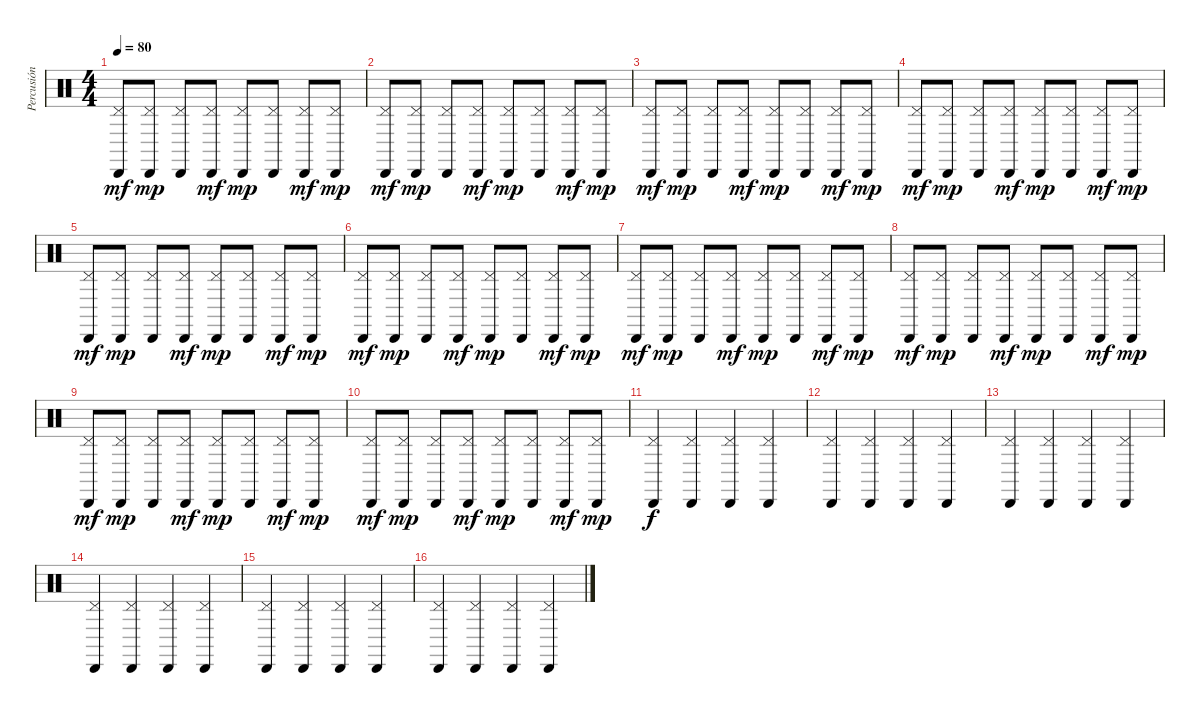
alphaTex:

\track ("Percusión" "Percusión") {instrument percussion}
\staff {score}
\articulation defaults
\ts (4 4)
\tempo 80
\clef neutral
\ks c
("Cabasa (hit)" "Pedal Hi-Hat (hit)").8{dy mf} ("Cabasa (hit)" "Pedal Hi-Hat (hit)").8{dy mp} ("Cabasa (hit)" "Pedal Hi-Hat (hit)").8 ("Cabasa (hit)" "Pedal Hi-Hat (hit)").8{dy mf} ("Cabasa (hit)" "Pedal Hi-Hat (hit)").8{dy mp} ("Cabasa (hit)" "Pedal Hi-Hat (hit)").8 ("Cabasa (hit)" "Pedal Hi-Hat (hit)").8{dy mf} ("Cabasa (hit)" "Pedal Hi-Hat (hit)").8{dy mp} |
("Cabasa (hit)" "Pedal Hi-Hat (hit)").8{dy mf} ("Cabasa (hit)" "Pedal Hi-Hat (hit)").8{dy mp} ("Cabasa (hit)" "Pedal Hi-Hat (hit)").8 ("Cabasa (hit)" "Pedal Hi-Hat (hit)").8{dy mf} ("Cabasa (hit)" "Pedal Hi-Hat (hit)").8{dy mp} ("Cabasa (hit)" "Pedal Hi-Hat (hit)").8 ("Cabasa (hit)" "Pedal Hi-Hat (hit)").8{dy mf} ("Cabasa (hit)" "Pedal Hi-Hat (hit)").8{dy mp} |
("Cabasa (hit)" "Pedal Hi-Hat (hit)").8{dy mf} ("Cabasa (hit)" "Pedal Hi-Hat (hit)").8{dy mp} ("Cabasa (hit)" "Pedal Hi-Hat (hit)").8 ("Cabasa (hit)" "Pedal Hi-Hat (hit)").8{dy mf} ("Cabasa (hit)" "Pedal Hi-Hat (hit)").8{dy mp} ("Cabasa (hit)" "Pedal Hi-Hat (hit)").8 ("Cabasa (hit)" "Pedal Hi-Hat (hit)").8{dy mf} ("Cabasa (hit)" "Pedal Hi-Hat (hit)").8{dy mp} |
("Cabasa (hit)" "Pedal Hi-Hat (hit)").8{dy mf} ("Cabasa (hit)" "Pedal Hi-Hat (hit)").8{dy mp} ("Cabasa (hit)" "Pedal Hi-Hat (hit)").8 ("Cabasa (hit)" "Pedal Hi-Hat (hit)").8{dy mf} ("Cabasa (hit)" "Pedal Hi-Hat (hit)").8{dy mp} ("Cabasa (hit)" "Pedal Hi-Hat (hit)").8 ("Cabasa (hit)" "Pedal Hi-Hat (hit)").8{dy mf} ("Cabasa (hit)" "Pedal Hi-Hat (hit)").8{dy mp} |
("Cabasa (hit)" "Pedal Hi-Hat (hit)").8{dy mf} ("Cabasa (hit)" "Pedal Hi-Hat (hit)").8{dy mp} ("Cabasa (hit)" "Pedal Hi-Hat (hit)").8 ("Cabasa (hit)" "Pedal Hi-Hat (hit)").8{dy mf} ("Cabasa (hit)" "Pedal Hi-Hat (hit)").8{dy mp} ("Cabasa (hit)" "Pedal Hi-Hat (hit)").8 ("Cabasa (hit)" "Pedal Hi-Hat (hit)").8{dy mf} ("Cabasa (hit)" "Pedal Hi-Hat (hit)").8{dy mp} |
("Cabasa (hit)" "Pedal Hi-Hat (hit)").8{dy mf} ("Cabasa (hit)" "Pedal Hi-Hat (hit)").8{dy mp} ("Cabasa (hit)" "Pedal Hi-Hat (hit)").8 ("Cabasa (hit)" "Pedal Hi-Hat (hit)").8{dy mf} ("Cabasa (hit)" "Pedal Hi-Hat (hit)").8{dy mp} ("Cabasa (hit)" "Pedal Hi-Hat (hit)").8 ("Cabasa (hit)" "Pedal Hi-Hat (hit)").8{dy mf} ("Cabasa (hit)" "Pedal Hi-Hat (hit)").8{dy mp} |
("Cabasa (hit)" "Pedal Hi-Hat (hit)").8{dy mf} ("Cabasa (hit)" "Pedal Hi-Hat (hit)").8{dy mp} ("Cabasa (hit)" "Pedal Hi-Hat (hit)").8 ("Cabasa (hit)" "Pedal Hi-Hat (hit)").8{dy mf} ("Cabasa (hit)" "Pedal Hi-Hat (hit)").8{dy mp} ("Cabasa (hit)" "Pedal Hi-Hat (hit)").8 ("Cabasa (hit)" "Pedal Hi-Hat (hit)").8{dy mf} ("Cabasa (hit)" "Pedal Hi-Hat (hit)").8{dy mp} |
("Cabasa (hit)" "Pedal Hi-Hat (hit)").8{dy mf} ("Cabasa (hit)" "Pedal Hi-Hat (hit)").8{dy mp} ("Cabasa (hit)" "Pedal Hi-Hat (hit)").8 ("Cabasa (hit)" "Pedal Hi-Hat (hit)").8{dy mf} ("Cabasa (hit)" "Pedal Hi-Hat (hit)").8{dy mp} ("Cabasa (hit)" "Pedal Hi-Hat (hit)").8 ("Cabasa (hit)" "Pedal Hi-Hat (hit)").8{dy mf} ("Cabasa (hit)" "Pedal Hi-Hat (hit)").8{dy mp} |
("Cabasa (hit)" "Pedal Hi-Hat (hit)").8{dy mf} ("Cabasa (hit)" "Pedal Hi-Hat (hit)").8{dy mp} ("Cabasa (hit)" "Pedal Hi-Hat (hit)").8 ("Cabasa (hit)" "Pedal Hi-Hat (hit)").8{dy mf} ("Cabasa (hit)" "Pedal Hi-Hat (hit)").8{dy mp} ("Cabasa (hit)" "Pedal Hi-Hat (hit)").8 ("Cabasa (hit)" "Pedal Hi-Hat (hit)").8{dy mf} ("Cabasa (hit)" "Pedal Hi-Hat (hit)").8{dy mp} |
("Cabasa (hit)" "Pedal Hi-Hat (hit)").8{dy mf} ("Cabasa (hit)" "Pedal Hi-Hat (hit)").8{dy mp} ("Cabasa (hit)" "Pedal Hi-Hat (hit)").8 ("Cabasa (hit)" "Pedal Hi-Hat (hit)").8{dy mf} ("Cabasa (hit)" "Pedal Hi-Hat (hit)").8{dy mp} ("Cabasa (hit)" "Pedal Hi-Hat (hit)").8 ("Cabasa (hit)" "Pedal Hi-Hat (hit)").8{dy mf} ("Cabasa (hit)" "Pedal Hi-Hat (hit)").8{dy mp} |
("Cabasa (hit)" "Pedal Hi-Hat (hit)").4{dy f} ("Cabasa (hit)" "Pedal Hi-Hat (hit)").4 ("Cabasa (hit)" "Pedal Hi-Hat (hit)").4 ("Cabasa (hit)" "Pedal Hi-Hat (hit)").4 |
("Cabasa (hit)" "Pedal Hi-Hat (hit)").4 ("Cabasa (hit)" "Pedal Hi-Hat (hit)").4 ("Cabasa (hit)" "Pedal Hi-Hat (hit)").4 ("Cabasa (hit)" "Pedal Hi-Hat (hit)").4 |
("Cabasa (hit)" "Pedal Hi-Hat (hit)").4 ("Cabasa (hit)" "Pedal Hi-Hat (hit)").4 ("Cabasa (hit)" "Pedal Hi-Hat (hit)").4 ("Cabasa (hit)" "Pedal Hi-Hat (hit)").4 |
("Cabasa (hit)" "Pedal Hi-Hat (hit)").4 ("Cabasa (hit)" "Pedal Hi-Hat (hit)").4 ("Cabasa (hit)" "Pedal Hi-Hat (hit)").4 ("Cabasa (hit)" "Pedal Hi-Hat (hit)").4 |
("Cabasa (hit)" "Pedal Hi-Hat (hit)").4 ("Cabasa (hit)" "Pedal Hi-Hat (hit)").4 ("Cabasa (hit)" "Pedal Hi-Hat (hit)").4 ("Cabasa (hit)" "Pedal Hi-Hat (hit)").4 |
("Cabasa (hit)" "Pedal Hi-Hat (hit)").4 ("Cabasa (hit)" "Pedal Hi-Hat (hit)").4 ("Cabasa (hit)" "Pedal Hi-Hat (hit)").4 ("Cabasa (hit)" "Pedal Hi-Hat (hit)").4
